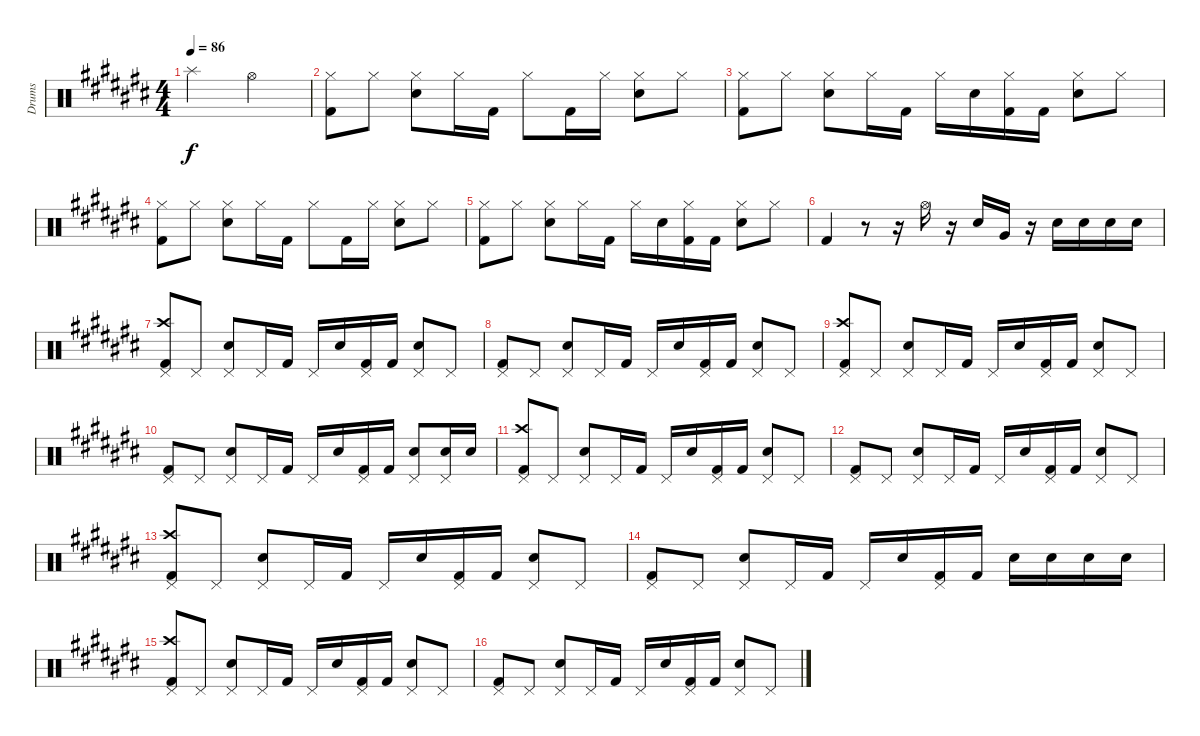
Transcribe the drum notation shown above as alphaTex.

\track ("Drums" "Drums") {instrument percussion}
\staff {score}
\articulation defaults
\ts (4 4)
\tempo 86
\clef neutral
\ks c# "Splash (hit)".2{dy f} "Hi-Hat (open)".2
|
("Hi-Hat (closed)" "Kick (hit) 2").8 "Hi-Hat (closed)".8 ("Hi-Hat (closed)" "Electric Snare (hit)").8 "Hi-Hat (closed)".16 "Kick (hit) 2".16 "Hi-Hat (closed)".8 "Kick (hit) 2".16 "Hi-Hat (closed)".16 ("Hi-Hat (closed)" "Electric Snare (hit)").8 "Hi-Hat (closed)".8 |
("Hi-Hat (closed)" "Kick (hit) 2").8 "Hi-Hat (closed)".8 ("Hi-Hat (closed)" "Electric Snare (hit)").8 "Hi-Hat (closed)".16 "Kick (hit) 2".16 "Hi-Hat (closed)".16 "Electric Snare (hit)".16 ("Hi-Hat (closed)" "Kick (hit) 2").16 "Kick (hit) 2".16 ("Hi-Hat (closed)" "Electric Snare (hit)").8 "Hi-Hat (closed)".8 |
("Hi-Hat (closed)" "Kick (hit) 2").8 "Hi-Hat (closed)".8 ("Hi-Hat (closed)" "Electric Snare (hit)").8 "Hi-Hat (closed)".16 "Kick (hit) 2".16 "Hi-Hat (closed)".8 "Kick (hit) 2".16 "Hi-Hat (closed)".16 ("Hi-Hat (closed)" "Electric Snare (hit)").8 "Hi-Hat (closed)".8 |
("Hi-Hat (closed)" "Kick (hit) 2").8 "Hi-Hat (closed)".8 ("Hi-Hat (closed)" "Electric Snare (hit)").8 "Hi-Hat (closed)".16 "Kick (hit) 2".16 "Hi-Hat (closed)".16 "Electric Snare (hit)".16 ("Hi-Hat (closed)" "Kick (hit) 2").16 "Kick (hit) 2".16 ("Hi-Hat (closed)" "Electric Snare (hit)").8 "Hi-Hat (closed)".8 |
"Kick (hit) 2".4 r.8 r.16 "Hi-Hat (open)".16 r.16 "Electric Snare (hit)".16 "Very Low Tom (hit)".16 r.16 "Electric Snare (hit)".16 "Electric Snare (hit)".16 "Electric Snare (hit)".16 "Electric Snare (hit)".16 |
("Crash high (hit)" "Pedal Hi-Hat (hit)" "Kick (hit) 2").8 "Pedal Hi-Hat (hit)".8 ("Pedal Hi-Hat (hit)" "Electric Snare (hit)").8 "Pedal Hi-Hat (hit)".16 "Kick (hit) 2".16 "Pedal Hi-Hat (hit)".16 "Electric Snare (hit)".16 ("Pedal Hi-Hat (hit)" "Kick (hit) 2").16 "Kick (hit) 2".16 ("Pedal Hi-Hat (hit)" "Electric Snare (hit)").8 "Pedal Hi-Hat (hit)".8 |
("Pedal Hi-Hat (hit)" "Kick (hit) 2").8 "Pedal Hi-Hat (hit)".8 ("Pedal Hi-Hat (hit)" "Electric Snare (hit)").8 "Pedal Hi-Hat (hit)".16 "Kick (hit) 2".16 "Pedal Hi-Hat (hit)".16 "Electric Snare (hit)".16 ("Pedal Hi-Hat (hit)" "Kick (hit) 2").16 "Kick (hit) 2".16 ("Pedal Hi-Hat (hit)" "Electric Snare (hit)").8 "Pedal Hi-Hat (hit)".8 |
("Crash high (hit)" "Pedal Hi-Hat (hit)" "Kick (hit) 2").8 "Pedal Hi-Hat (hit)".8 ("Pedal Hi-Hat (hit)" "Electric Snare (hit)").8 "Pedal Hi-Hat (hit)".16 "Kick (hit) 2".16 "Pedal Hi-Hat (hit)".16 "Electric Snare (hit)".16 ("Pedal Hi-Hat (hit)" "Kick (hit) 2").16 "Kick (hit) 2".16 ("Pedal Hi-Hat (hit)" "Electric Snare (hit)").8 "Pedal Hi-Hat (hit)".8 |
("Pedal Hi-Hat (hit)" "Kick (hit) 2").8 "Pedal Hi-Hat (hit)".8 ("Pedal Hi-Hat (hit)" "Electric Snare (hit)").8 "Pedal Hi-Hat (hit)".16 "Kick (hit) 2".16 "Pedal Hi-Hat (hit)".16 "Electric Snare (hit)".16 ("Pedal Hi-Hat (hit)" "Kick (hit) 2").16 "Kick (hit) 2".16 ("Pedal Hi-Hat (hit)" "Electric Snare (hit)").8 ("Pedal Hi-Hat (hit)" "Electric Snare (hit)").16 "Electric Snare (hit)".16 |
("Crash high (hit)" "Pedal Hi-Hat (hit)" "Kick (hit) 2").8 "Pedal Hi-Hat (hit)".8 ("Pedal Hi-Hat (hit)" "Electric Snare (hit)").8 "Pedal Hi-Hat (hit)".16 "Kick (hit) 2".16 "Pedal Hi-Hat (hit)".16 "Electric Snare (hit)".16 ("Pedal Hi-Hat (hit)" "Kick (hit) 2").16 "Kick (hit) 2".16 ("Pedal Hi-Hat (hit)" "Electric Snare (hit)").8 "Pedal Hi-Hat (hit)".8 |
("Pedal Hi-Hat (hit)" "Kick (hit) 2").8 "Pedal Hi-Hat (hit)".8 ("Pedal Hi-Hat (hit)" "Electric Snare (hit)").8 "Pedal Hi-Hat (hit)".16 "Kick (hit) 2".16 "Pedal Hi-Hat (hit)".16 "Electric Snare (hit)".16 ("Pedal Hi-Hat (hit)" "Kick (hit) 2").16 "Kick (hit) 2".16 ("Pedal Hi-Hat (hit)" "Electric Snare (hit)").8 "Pedal Hi-Hat (hit)".8 |
("Crash high (hit)" "Pedal Hi-Hat (hit)" "Kick (hit) 2").8 "Pedal Hi-Hat (hit)".8 ("Pedal Hi-Hat (hit)" "Electric Snare (hit)").8 "Pedal Hi-Hat (hit)".16 "Kick (hit) 2".16 "Pedal Hi-Hat (hit)".16 "Electric Snare (hit)".16 ("Pedal Hi-Hat (hit)" "Kick (hit) 2").16 "Kick (hit) 2".16 ("Pedal Hi-Hat (hit)" "Electric Snare (hit)").8 "Pedal Hi-Hat (hit)".8 |
("Pedal Hi-Hat (hit)" "Kick (hit) 2").8 "Pedal Hi-Hat (hit)".8 ("Pedal Hi-Hat (hit)" "Electric Snare (hit)").8 "Pedal Hi-Hat (hit)".16 "Kick (hit) 2".16 "Pedal Hi-Hat (hit)".16 "Electric Snare (hit)".16 ("Pedal Hi-Hat (hit)" "Kick (hit) 2").16 "Kick (hit) 2".16 "Electric Snare (hit)".16 "Electric Snare (hit)".16 "Electric Snare (hit)".16 "Electric Snare (hit)".16 |
("Crash high (hit)" "Pedal Hi-Hat (hit)" "Kick (hit) 2").8 "Pedal Hi-Hat (hit)".8 ("Pedal Hi-Hat (hit)" "Electric Snare (hit)").8 "Pedal Hi-Hat (hit)".16 "Kick (hit) 2".16 "Pedal Hi-Hat (hit)".16 "Electric Snare (hit)".16 ("Pedal Hi-Hat (hit)" "Kick (hit) 2").16 "Kick (hit) 2".16 ("Pedal Hi-Hat (hit)" "Electric Snare (hit)").8 "Pedal Hi-Hat (hit)".8 |
("Pedal Hi-Hat (hit)" "Kick (hit) 2").8 "Pedal Hi-Hat (hit)".8 ("Pedal Hi-Hat (hit)" "Electric Snare (hit)").8 "Pedal Hi-Hat (hit)".16 "Kick (hit) 2".16 "Pedal Hi-Hat (hit)".16 "Electric Snare (hit)".16 ("Pedal Hi-Hat (hit)" "Kick (hit) 2").16 "Kick (hit) 2".16 ("Pedal Hi-Hat (hit)" "Electric Snare (hit)").8 "Pedal Hi-Hat (hit)".8
